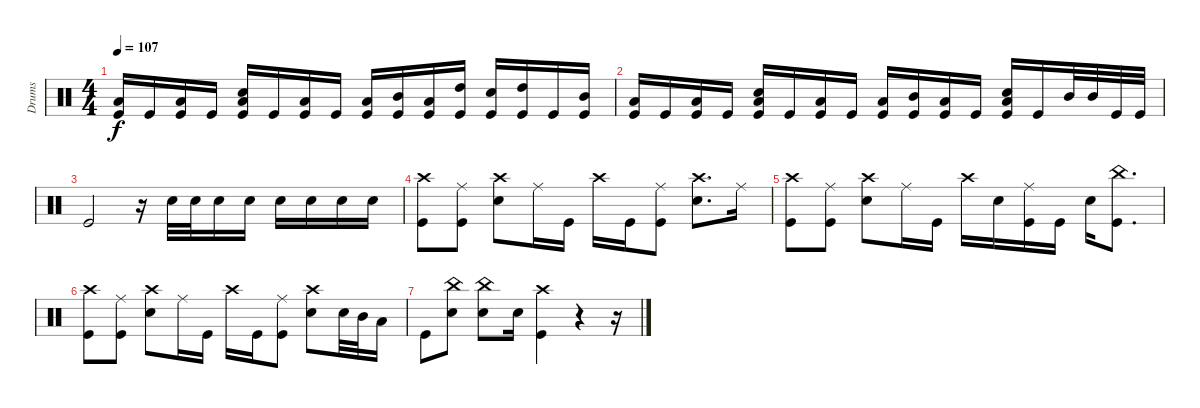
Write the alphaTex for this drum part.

\track ("Drums" "Drums") {instrument percussion}
\staff {score}
\articulation defaults
\ts (4 4)
\tempo 107
\clef neutral
\ks c
("Low Tom (hit)" "Kick (hit)").16{dy f} "Kick (hit)".16 ("Low Tom (hit)" "Kick (hit)").16 "Kick (hit)".16 ("Low Tom (hit)" "Snare (hit) 2" "Kick (hit)").16 "Kick (hit)".16 ("Low Tom (hit)" "Kick (hit)").16 "Kick (hit)".16 ("Low Tom (hit)" "Kick (hit)").16 ("Mid Tom (hit)" "Kick (hit)").16 ("Low Tom (hit)" "Kick (hit)").16 ("High Tom (hit)" "Kick (hit)").16 ("Snare (hit) 2" "Kick (hit)").16 ("High Tom (hit)" "Kick (hit)").16 "Kick (hit)".16 ("Mid Tom (hit)" "Kick (hit)").16 |
("Low Tom (hit)" "Kick (hit)").16 "Kick (hit)".16 ("Low Tom (hit)" "Kick (hit)").16 "Kick (hit)".16 ("Low Tom (hit)" "Snare (hit) 2" "Kick (hit)").16 "Kick (hit)".16 ("Low Tom (hit)" "Kick (hit)").16 "Kick (hit)".16 ("Low Tom (hit)" "Kick (hit)").16 ("Mid Tom (hit)" "Kick (hit)").16 ("Low Tom (hit)" "Kick (hit)").16 "Kick (hit)".16 ("Low Tom (hit)" "Snare (hit) 2" "Kick (hit)").16 "Kick (hit)".16 "Mid Tom (hit)".32 "Mid Tom (hit)".32 "Kick (hit)".32 "Kick (hit)".32 |
"Kick (hit)".2 r.16 "Snare (hit) 2".32 "Snare (hit) 2".32 "Snare (hit) 2".16 "Snare (hit) 2".16 "Snare (hit) 2".16 "Snare (hit) 2".16 "Snare (hit) 2".16 "Snare (hit) 2".16 |
("Crash high (hit)" "Kick (hit)").8 ("Ride (middle)" "Kick (hit)").8 ("Crash high (hit)" "Snare (hit) 2").8 "Ride (middle)".16 "Kick (hit)".16 "Crash high (hit)".16 "Kick (hit)".16 ("Ride (middle)" "Kick (hit)").8 ("Crash high (hit)" "Snare (hit) 2").8{d} "Ride (middle)".16 |
("Crash high (hit)" "Kick (hit)").8 ("Ride (middle)" "Kick (hit)").8 ("Crash high (hit)" "Snare (hit) 2").8 "Ride (middle)".16 "Kick (hit)".16 "Crash high (hit)".16 "Snare (hit) 2".16 ("Ride (middle)" "Kick (hit)").16 "Kick (hit)".16 "Snare (hit) 2".16 ("China (hit)" "Kick (hit)").8{d} |
("Crash high (hit)" "Kick (hit)").8 ("Ride (middle)" "Kick (hit)").8 ("Crash high (hit)" "Snare (hit) 2").8 "Ride (middle)".16 "Kick (hit)".16 "Crash high (hit)".16 "Kick (hit)".16 ("Ride (middle)" "Kick (hit)").8 ("Crash high (hit)" "Snare (hit) 2").8 "Snare (hit) 2".32 "Mid Tom (hit)".32 "Low Tom (hit)".16 |
"Kick (hit)".8 ("China (hit)" "Snare (hit) 2").8 ("China (hit)" "Snare (hit) 2").8 "Snare (hit) 2".16 ("Crash high (hit)" "Kick (hit)").4 r.4 r.16
